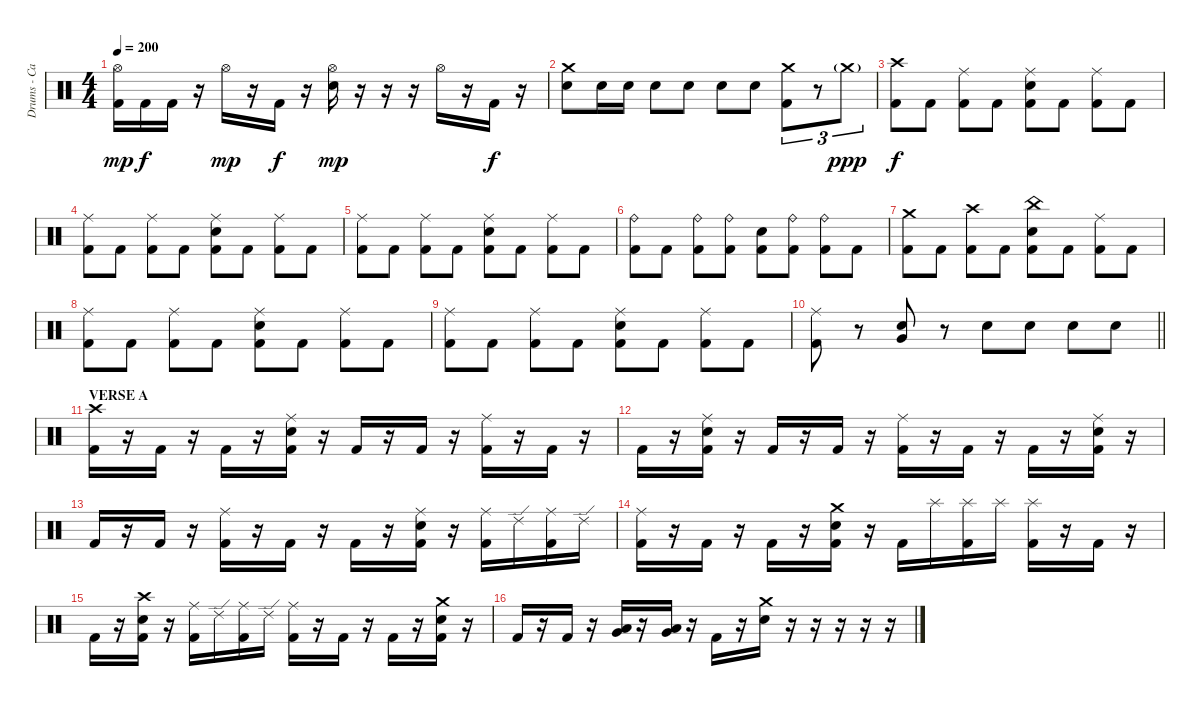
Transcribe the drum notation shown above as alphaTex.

\track ("Drums - Carlos Cruz" "Drums - Ca") {instrument percussion}
\staff {score}
\articulation defaults
\ts (4 4)
\tempo 200
\clef neutral
\ks c
("Hi-Hat (open)" "Kick (hit) 2").16{dy mp} "Kick (hit) 2".16{dy f} "Kick (hit) 2".16 r.16 "Hi-Hat (open)".16{dy mp} r.16 "Kick (hit) 2".16{dy f} r.16 ("Hi-Hat (open)" "Snare (hit) 2").16{dy mp} r.16 r.16 r.16 "Hi-Hat (open)".16 r.16 "Kick (hit) 2".16{dy f} r.16 |
("Crash medium (hit)" "Snare (hit) 2").8 "Snare (hit) 2".16 "Snare (hit) 2".16 "Snare (hit) 2".8 "Snare (hit) 2".8 "Snare (hit) 2".8 "Snare (hit) 2".8 ("Crash medium (hit)" "Kick (hit) 2").8{tu (3 2)} r.8{tu (3 2)} "Crash medium (hit)"{g}.8{tu (3 2) dy ppp} |
("Crash high (hit)" "Kick (hit) 2").8{dy f} "Kick (hit) 2".8 ("Ride (middle)" "Kick (hit) 2").8 "Kick (hit) 2".8 ("Ride (middle)" "Snare (hit) 2" "Kick (hit) 2").8 "Kick (hit) 2".8 ("Ride (middle)" "Kick (hit) 2").8 "Kick (hit) 2".8 |
("Ride (middle)" "Kick (hit) 2").8 "Kick (hit) 2".8 ("Ride (middle)" "Kick (hit) 2").8 "Kick (hit) 2".8 ("Ride (middle)" "Snare (hit) 2" "Kick (hit) 2").8 "Kick (hit) 2".8 ("Ride (middle)" "Kick (hit) 2").8 "Kick (hit) 2".8 |
("Ride (middle)" "Kick (hit) 2").8 "Kick (hit) 2".8 ("Ride (middle)" "Kick (hit) 2").8 "Kick (hit) 2".8 ("Ride (middle)" "Snare (hit) 2" "Kick (hit) 2").8 "Kick (hit) 2".8 ("Ride (middle)" "Kick (hit) 2").8 "Kick (hit) 2".8 |
("Ride (bell)" "Kick (hit) 2").8 "Kick (hit) 2".8 ("Ride (bell)" "Kick (hit) 2").8 ("Ride (bell)" "Kick (hit) 2").8 ("Snare (hit) 2" "Kick (hit) 2").8 ("Ride (bell)" "Kick (hit) 2").8 ("Ride (bell)" "Kick (hit) 2").8 "Kick (hit) 2".8 |
("Crash medium (hit)" "Kick (hit) 2").8 "Kick (hit) 2".8 ("Crash high (hit)" "Kick (hit) 2").8 "Kick (hit) 2".8 ("China (hit)" "Snare (hit) 2" "Kick (hit) 2").8 "Kick (hit) 2".8 ("Ride (middle)" "Kick (hit) 2").8 "Kick (hit) 2".8 |
("Ride (middle)" "Kick (hit) 2").8 "Kick (hit) 2".8 ("Ride (middle)" "Kick (hit) 2").8 "Kick (hit) 2".8 ("Ride (middle)" "Snare (hit) 2" "Kick (hit) 2").8 "Kick (hit) 2".8 ("Ride (middle)" "Kick (hit) 2").8 "Kick (hit) 2".8 |
("Ride (middle)" "Kick (hit) 2").8 "Kick (hit) 2".8 ("Ride (middle)" "Kick (hit) 2").8 "Kick (hit) 2".8 ("Ride (middle)" "Snare (hit) 2" "Kick (hit) 2").8 "Kick (hit) 2".8 ("Ride (middle)" "Kick (hit) 2").8 "Kick (hit) 2".8 |
\barLineRight lightlight
("Ride (middle)" "Kick (hit) 2").8 r.8 ("Snare (hit) 2" "Very Low Tom (hit)").8 r.8 "Snare (hit) 2".8 "Snare (hit) 2".8 "Snare (hit) 2".8 "Snare (hit) 2".8 |
\section ("" "VERSE A")
("Crash high (hit)" "Kick (hit) 2").16 r.16 "Kick (hit) 2".16 r.16 "Kick (hit) 2".16 r.16 ("Ride (middle)" "Snare (hit) 2" "Kick (hit) 2").16 r.16 "Kick (hit) 2".16 r.16 "Kick (hit) 2".16 r.16 ("Ride (middle)" "Kick (hit) 2").16 r.16 "Kick (hit) 2".16 r.16 |
"Kick (hit) 2".16 r.16 ("Ride (middle)" "Snare (hit) 2" "Kick (hit) 2").16 r.16 "Kick (hit) 2".16 r.16 "Kick (hit) 2".16 r.16 ("Ride (middle)" "Kick (hit) 2").16 r.16 "Kick (hit) 2".16 r.16 "Kick (hit) 2".16 r.16 ("Ride (middle)" "Snare (hit) 2" "Kick (hit) 2").16 r.16 |
"Kick (hit) 2".16 r.16 "Kick (hit) 2".16 r.16 ("Ride (middle)" "Kick (hit) 2").16 r.16 "Kick (hit) 2".16 r.16 "Kick (hit) 2".16 r.16 ("Ride (middle)" "Snare (hit) 2" "Kick (hit) 2").16 r.16 ("Ride (middle)" "Kick (hit) 2").16 "Ride (edge) 2".16 ("Ride (middle)" "Kick (hit) 2").16 "Ride (edge) 2".16 |
("Ride (middle)" "Kick (hit) 2").16 r.16 "Kick (hit) 2".16 r.16 "Kick (hit) 2".16 r.16 ("Crash medium (hit)" "Snare (hit) 2" "Kick (hit) 2").16 r.16 "Kick (hit) 2".16 "Splash (hit)".16 ("Splash (hit)" "Kick (hit) 2").16 "Splash (hit)".16 ("Splash (hit)" "Kick (hit) 2").16 r.16 "Kick (hit) 2".16 r.16 |
"Kick (hit) 2".16 r.16 ("Crash high (hit)" "Snare (hit) 2" "Kick (hit) 2").16 r.16 ("Ride (middle)" "Kick (hit) 2").16 "Ride (edge) 2".16 ("Ride (middle)" "Kick (hit) 2").16 "Ride (edge) 2".16 ("Ride (middle)" "Kick (hit) 2").16 r.16 "Kick (hit) 2".16 r.16 "Kick (hit) 2".16 r.16 ("Crash medium (hit)" "Snare (hit) 2" "Kick (hit) 2").16 r.16 |
"Kick (hit) 2".16 r.16 "Kick (hit) 2".16 r.16 ("Low Tom (hit)" "Very Low Tom (hit)").16 r.16 ("Low Tom (hit)" "Very Low Tom (hit)").16 r.16 "Kick (hit) 2".16 r.16 ("Crash medium (hit)" "Snare (hit) 2").16 r.16 r.16 r.16 r.16 r.16
